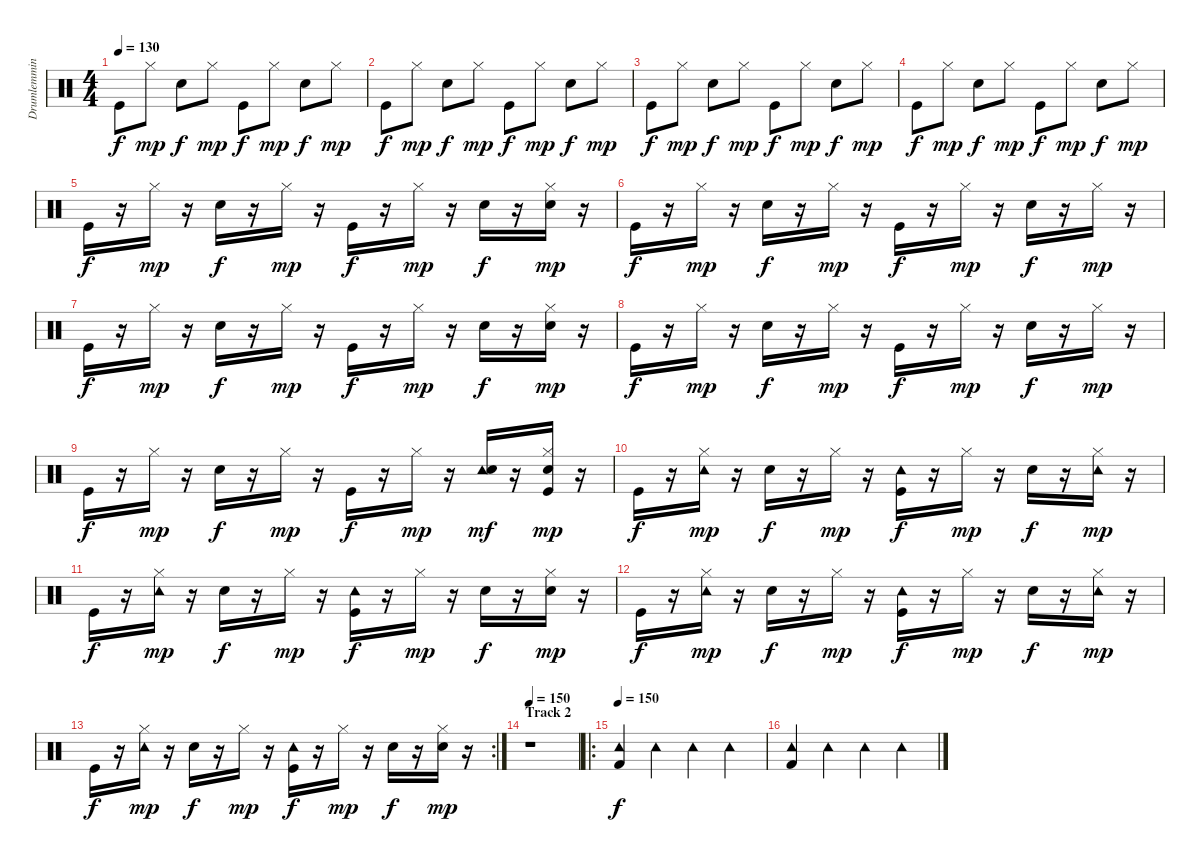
\track ("Drumlemming" "Drumlemmin") {instrument percussion}
\staff {score}
\articulation defaults
\ts (4 4)
\tempo 130
\clef neutral
\ks c "Kick (hit)".8{dy f} "Hi-Hat (closed)".8{dy mp} "Electric Snare (hit)".8{dy f} "Hi-Hat (closed)".8{dy mp} "Kick (hit)".8{dy f} "Hi-Hat (closed)".8{dy mp} "Electric Snare (hit)".8{dy f} "Hi-Hat (closed)".8{dy mp}
|
"Kick (hit)".8{dy f} "Hi-Hat (closed)".8{dy mp} "Electric Snare (hit)".8{dy f} "Hi-Hat (closed)".8{dy mp} "Kick (hit)".8{dy f} "Hi-Hat (closed)".8{dy mp} "Electric Snare (hit)".8{dy f} "Hi-Hat (closed)".8{dy mp} |
"Kick (hit)".8{dy f} "Hi-Hat (closed)".8{dy mp} "Electric Snare (hit)".8{dy f} "Hi-Hat (closed)".8{dy mp} "Kick (hit)".8{dy f} "Hi-Hat (closed)".8{dy mp} "Electric Snare (hit)".8{dy f} "Hi-Hat (closed)".8{dy mp} |
"Kick (hit)".8{dy f} "Hi-Hat (closed)".8{dy mp} "Electric Snare (hit)".8{dy f} "Hi-Hat (closed)".8{dy mp} "Kick (hit)".8{dy f} "Hi-Hat (closed)".8{dy mp} "Electric Snare (hit)".8{dy f} "Hi-Hat (closed)".8{dy mp} |
"Kick (hit)".16{dy f} r.16 "Hi-Hat (closed)".16{dy mp} r.16 "Electric Snare (hit)".16{dy f} r.16 "Hi-Hat (closed)".16{dy mp} r.16 "Kick (hit)".16{dy f} r.16 "Hi-Hat (closed)".16{dy mp} r.16 "Electric Snare (hit)".16{dy f} r.16 ("Electric Snare (hit)" "Hi-Hat (closed)").16{dy mp} r.16 |
"Kick (hit)".16{dy f} r.16 "Hi-Hat (closed)".16{dy mp} r.16 "Electric Snare (hit)".16{dy f} r.16 "Hi-Hat (closed)".16{dy mp} r.16 "Kick (hit)".16{dy f} r.16 "Hi-Hat (closed)".16{dy mp} r.16 "Electric Snare (hit)".16{dy f} r.16 "Hi-Hat (closed)".16{dy mp} r.16 |
"Kick (hit)".16{dy f} r.16 "Hi-Hat (closed)".16{dy mp} r.16 "Electric Snare (hit)".16{dy f} r.16 "Hi-Hat (closed)".16{dy mp} r.16 "Kick (hit)".16{dy f} r.16 "Hi-Hat (closed)".16{dy mp} r.16 "Electric Snare (hit)".16{dy f} r.16 ("Electric Snare (hit)" "Hi-Hat (closed)").16{dy mp} r.16 |
"Kick (hit)".16{dy f} r.16 "Hi-Hat (closed)".16{dy mp} r.16 "Electric Snare (hit)".16{dy f} r.16 "Hi-Hat (closed)".16{dy mp} r.16 "Kick (hit)".16{dy f} r.16 "Hi-Hat (closed)".16{dy mp} r.16 "Electric Snare (hit)".16{dy f} r.16 "Hi-Hat (closed)".16{dy mp} r.16 |
"Kick (hit)".16{dy f} r.16 "Hi-Hat (closed)".16{dy mp} r.16 "Electric Snare (hit)".16{dy f} r.16 "Hi-Hat (closed)".16{dy mp} r.16 "Kick (hit)".16{dy f} r.16 "Hi-Hat (closed)".16{dy mp} r.16 ("Tambourine (hit)" "Electric Snare (hit)").16{dy mf} r.16 ("Kick (hit)" "Electric Snare (hit)" "Hi-Hat (closed)").16{dy mp} r.16 |
"Kick (hit)".16{dy f} r.16 ("Tambourine (hit)" "Hi-Hat (closed)").16{dy mp} r.16 "Electric Snare (hit)".16{dy f} r.16 "Hi-Hat (closed)".16{dy mp} r.16 ("Tambourine (hit)" "Kick (hit)").16{dy f} r.16 "Hi-Hat (closed)".16{dy mp} r.16 "Electric Snare (hit)".16{dy f} r.16 ("Tambourine (hit)" "Hi-Hat (closed)").16{dy mp} r.16 |
"Kick (hit)".16{dy f} r.16 ("Tambourine (hit)" "Hi-Hat (closed)").16{dy mp} r.16 "Electric Snare (hit)".16{dy f} r.16 "Hi-Hat (closed)".16{dy mp} r.16 ("Tambourine (hit)" "Kick (hit)").16{dy f} r.16 "Hi-Hat (closed)".16{dy mp} r.16 "Electric Snare (hit)".16{dy f} r.16 ("Electric Snare (hit)" "Hi-Hat (closed)").16{dy mp} r.16 |
"Kick (hit)".16{dy f} r.16 ("Tambourine (hit)" "Hi-Hat (closed)").16{dy mp} r.16 "Electric Snare (hit)".16{dy f} r.16 "Hi-Hat (closed)".16{dy mp} r.16 ("Tambourine (hit)" "Kick (hit)").16{dy f} r.16 "Hi-Hat (closed)".16{dy mp} r.16 "Electric Snare (hit)".16{dy f} r.16 ("Tambourine (hit)" "Hi-Hat (closed)").16{dy mp} r.16 |
\rc 2 "Kick (hit)".16{dy f}
r.16 ("Tambourine (hit)" "Hi-Hat (closed)").16{dy mp} r.16 "Electric Snare (hit)".16{dy f} r.16 "Hi-Hat (closed)".16{dy mp} r.16 ("Tambourine (hit)" "Kick (hit)").16{dy f} r.16 "Hi-Hat (closed)".16{dy mp} r.16 "Electric Snare (hit)".16{dy f} r.16 ("Electric Snare (hit)" "Hi-Hat (closed)").16{dy mp} r.16 |
\section ("" "Track 2")
\tempo 150
r.1 |
\ro
\tempo 150
("Kick (hit) 2" "Tambourine (hit)").4{dy f} "Tambourine (hit)".4 "Tambourine (hit)".4 "Tambourine (hit)".4 |
("Kick (hit) 2" "Tambourine (hit)").4 "Tambourine (hit)".4 "Tambourine (hit)".4 "Tambourine (hit)".4
